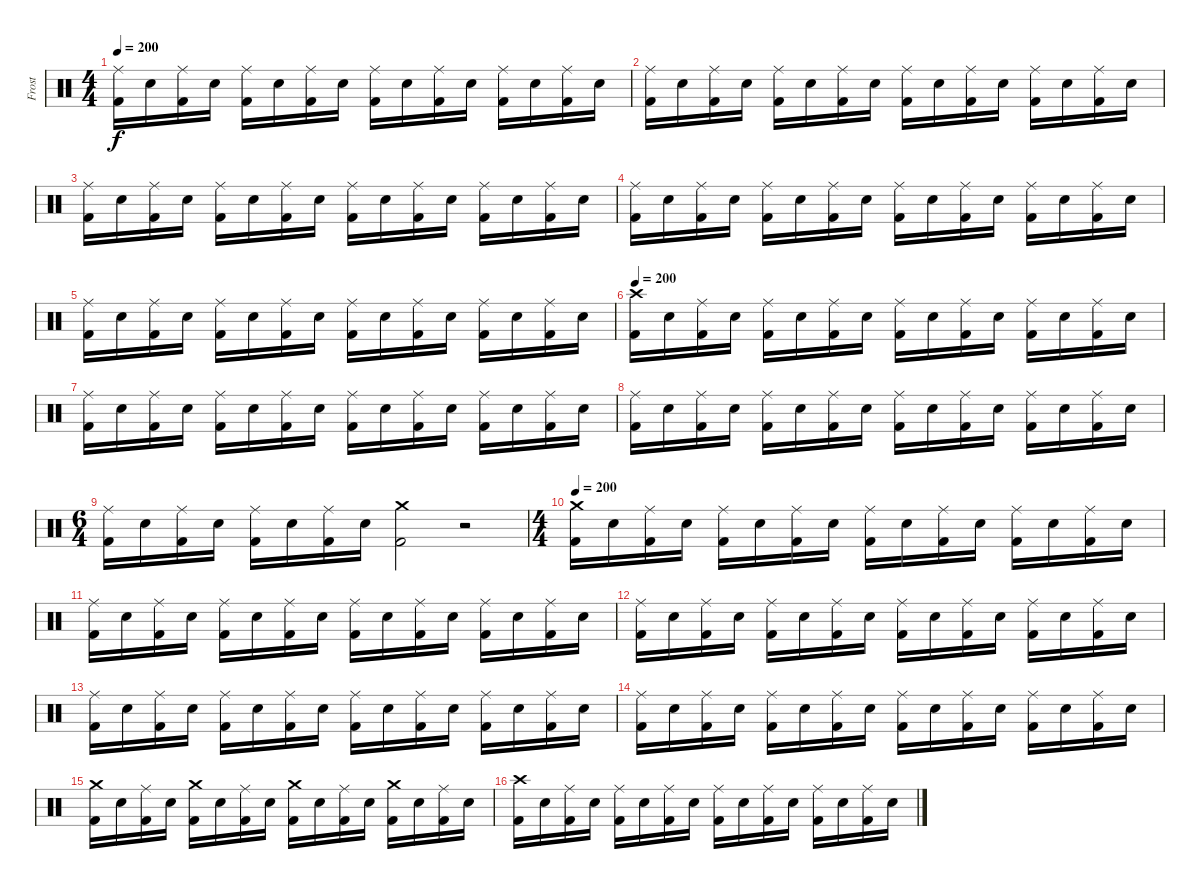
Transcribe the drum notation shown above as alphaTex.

\track ("Frost" "Frost") {instrument percussion}
\staff {score}
\articulation defaults
\ts (4 4)
\tempo 200
\clef neutral
\ks c
("Ride (middle)" "Kick (hit) 2").16{dy f} "Electric Snare (hit)".16 ("Ride (middle)" "Kick (hit) 2").16 "Electric Snare (hit)".16 ("Ride (middle)" "Kick (hit) 2").16 "Electric Snare (hit)".16 ("Ride (middle)" "Kick (hit) 2").16 "Electric Snare (hit)".16 ("Ride (middle)" "Kick (hit) 2").16 "Electric Snare (hit)".16 ("Ride (middle)" "Kick (hit) 2").16 "Electric Snare (hit)".16 ("Ride (middle)" "Kick (hit) 2").16 "Electric Snare (hit)".16 ("Ride (middle)" "Kick (hit) 2").16 "Electric Snare (hit)".16 |
("Ride (middle)" "Kick (hit) 2").16 "Electric Snare (hit)".16 ("Ride (middle)" "Kick (hit) 2").16 "Electric Snare (hit)".16 ("Ride (middle)" "Kick (hit) 2").16 "Electric Snare (hit)".16 ("Ride (middle)" "Kick (hit) 2").16 "Electric Snare (hit)".16 ("Ride (middle)" "Kick (hit) 2").16 "Electric Snare (hit)".16 ("Ride (middle)" "Kick (hit) 2").16 "Electric Snare (hit)".16 ("Ride (middle)" "Kick (hit) 2").16 "Electric Snare (hit)".16 ("Ride (middle)" "Kick (hit) 2").16 "Electric Snare (hit)".16 |
("Ride (middle)" "Kick (hit) 2").16 "Electric Snare (hit)".16 ("Ride (middle)" "Kick (hit) 2").16 "Electric Snare (hit)".16 ("Ride (middle)" "Kick (hit) 2").16 "Electric Snare (hit)".16 ("Ride (middle)" "Kick (hit) 2").16 "Electric Snare (hit)".16 ("Ride (middle)" "Kick (hit) 2").16 "Electric Snare (hit)".16 ("Ride (middle)" "Kick (hit) 2").16 "Electric Snare (hit)".16 ("Ride (middle)" "Kick (hit) 2").16 "Electric Snare (hit)".16 ("Ride (middle)" "Kick (hit) 2").16 "Electric Snare (hit)".16 |
("Ride (middle)" "Kick (hit) 2").16 "Electric Snare (hit)".16 ("Ride (middle)" "Kick (hit) 2").16 "Electric Snare (hit)".16 ("Ride (middle)" "Kick (hit) 2").16 "Electric Snare (hit)".16 ("Ride (middle)" "Kick (hit) 2").16 "Electric Snare (hit)".16 ("Ride (middle)" "Kick (hit) 2").16 "Electric Snare (hit)".16 ("Ride (middle)" "Kick (hit) 2").16 "Electric Snare (hit)".16 ("Ride (middle)" "Kick (hit) 2").16 "Electric Snare (hit)".16 ("Ride (middle)" "Kick (hit) 2").16 "Electric Snare (hit)".16 |
("Ride (middle)" "Kick (hit) 2").16 "Electric Snare (hit)".16 ("Ride (middle)" "Kick (hit) 2").16 "Electric Snare (hit)".16 ("Ride (middle)" "Kick (hit) 2").16 "Electric Snare (hit)".16 ("Ride (middle)" "Kick (hit) 2").16 "Electric Snare (hit)".16 ("Ride (middle)" "Kick (hit) 2").16 "Electric Snare (hit)".16 ("Ride (middle)" "Kick (hit) 2").16 "Electric Snare (hit)".16 ("Ride (middle)" "Kick (hit) 2").16 "Electric Snare (hit)".16 ("Ride (middle)" "Kick (hit) 2").16 "Electric Snare (hit)".16 |
\tempo 200
("Crash high (hit)" "Kick (hit) 2").16 "Electric Snare (hit)".16 ("Ride (middle)" "Kick (hit) 2").16 "Electric Snare (hit)".16 ("Ride (middle)" "Kick (hit) 2").16 "Electric Snare (hit)".16 ("Ride (middle)" "Kick (hit) 2").16 "Electric Snare (hit)".16 ("Ride (middle)" "Kick (hit) 2").16 "Electric Snare (hit)".16 ("Ride (middle)" "Kick (hit) 2").16 "Electric Snare (hit)".16 ("Ride (middle)" "Kick (hit) 2").16 "Electric Snare (hit)".16 ("Ride (middle)" "Kick (hit) 2").16 "Electric Snare (hit)".16 |
("Ride (middle)" "Kick (hit) 2").16 "Electric Snare (hit)".16 ("Ride (middle)" "Kick (hit) 2").16 "Electric Snare (hit)".16 ("Ride (middle)" "Kick (hit) 2").16 "Electric Snare (hit)".16 ("Ride (middle)" "Kick (hit) 2").16 "Electric Snare (hit)".16 ("Ride (middle)" "Kick (hit) 2").16 "Electric Snare (hit)".16 ("Ride (middle)" "Kick (hit) 2").16 "Electric Snare (hit)".16 ("Ride (middle)" "Kick (hit) 2").16 "Electric Snare (hit)".16 ("Ride (middle)" "Kick (hit) 2").16 "Electric Snare (hit)".16 |
("Ride (middle)" "Kick (hit) 2").16 "Electric Snare (hit)".16 ("Ride (middle)" "Kick (hit) 2").16 "Electric Snare (hit)".16 ("Ride (middle)" "Kick (hit) 2").16 "Electric Snare (hit)".16 ("Ride (middle)" "Kick (hit) 2").16 "Electric Snare (hit)".16 ("Ride (middle)" "Kick (hit) 2").16 "Electric Snare (hit)".16 ("Ride (middle)" "Kick (hit) 2").16 "Electric Snare (hit)".16 ("Ride (middle)" "Kick (hit) 2").16 "Electric Snare (hit)".16 ("Ride (middle)" "Kick (hit) 2").16 "Electric Snare (hit)".16 |
\ts (6 4)
("Ride (middle)" "Kick (hit) 2").16 "Electric Snare (hit)".16 ("Ride (middle)" "Kick (hit) 2").16 "Electric Snare (hit)".16 ("Ride (middle)" "Kick (hit) 2").16 "Electric Snare (hit)".16 ("Ride (middle)" "Kick (hit) 2").16 "Electric Snare (hit)".16 ("Crash medium (hit)" "Kick (hit) 2").2 r.2 |
\ts (4 4)
\tempo 200
("Crash medium (hit)" "Kick (hit) 2").16 "Electric Snare (hit)".16 ("Ride (middle)" "Kick (hit) 2").16 "Electric Snare (hit)".16 ("Ride (middle)" "Kick (hit) 2").16 "Electric Snare (hit)".16 ("Ride (middle)" "Kick (hit) 2").16 "Electric Snare (hit)".16 ("Ride (middle)" "Kick (hit) 2").16 "Electric Snare (hit)".16 ("Ride (middle)" "Kick (hit) 2").16 "Electric Snare (hit)".16 ("Ride (middle)" "Kick (hit) 2").16 "Electric Snare (hit)".16 ("Ride (middle)" "Kick (hit) 2").16 "Electric Snare (hit)".16 |
("Ride (middle)" "Kick (hit) 2").16 "Electric Snare (hit)".16 ("Ride (middle)" "Kick (hit) 2").16 "Electric Snare (hit)".16 ("Ride (middle)" "Kick (hit) 2").16 "Electric Snare (hit)".16 ("Ride (middle)" "Kick (hit) 2").16 "Electric Snare (hit)".16 ("Ride (middle)" "Kick (hit) 2").16 "Electric Snare (hit)".16 ("Ride (middle)" "Kick (hit) 2").16 "Electric Snare (hit)".16 ("Ride (middle)" "Kick (hit) 2").16 "Electric Snare (hit)".16 ("Ride (middle)" "Kick (hit) 2").16 "Electric Snare (hit)".16 |
("Ride (middle)" "Kick (hit) 2").16 "Electric Snare (hit)".16 ("Ride (middle)" "Kick (hit) 2").16 "Electric Snare (hit)".16 ("Ride (middle)" "Kick (hit) 2").16 "Electric Snare (hit)".16 ("Ride (middle)" "Kick (hit) 2").16 "Electric Snare (hit)".16 ("Ride (middle)" "Kick (hit) 2").16 "Electric Snare (hit)".16 ("Ride (middle)" "Kick (hit) 2").16 "Electric Snare (hit)".16 ("Ride (middle)" "Kick (hit) 2").16 "Electric Snare (hit)".16 ("Ride (middle)" "Kick (hit) 2").16 "Electric Snare (hit)".16 |
("Ride (middle)" "Kick (hit) 2").16 "Electric Snare (hit)".16 ("Ride (middle)" "Kick (hit) 2").16 "Electric Snare (hit)".16 ("Ride (middle)" "Kick (hit) 2").16 "Electric Snare (hit)".16 ("Ride (middle)" "Kick (hit) 2").16 "Electric Snare (hit)".16 ("Ride (middle)" "Kick (hit) 2").16 "Electric Snare (hit)".16 ("Ride (middle)" "Kick (hit) 2").16 "Electric Snare (hit)".16 ("Ride (middle)" "Kick (hit) 2").16 "Electric Snare (hit)".16 ("Ride (middle)" "Kick (hit) 2").16 "Electric Snare (hit)".16 |
("Ride (middle)" "Kick (hit) 2").16 "Electric Snare (hit)".16 ("Ride (middle)" "Kick (hit) 2").16 "Electric Snare (hit)".16 ("Ride (middle)" "Kick (hit) 2").16 "Electric Snare (hit)".16 ("Ride (middle)" "Kick (hit) 2").16 "Electric Snare (hit)".16 ("Ride (middle)" "Kick (hit) 2").16 "Electric Snare (hit)".16 ("Ride (middle)" "Kick (hit) 2").16 "Electric Snare (hit)".16 ("Ride (middle)" "Kick (hit) 2").16 "Electric Snare (hit)".16 ("Ride (middle)" "Kick (hit) 2").16 "Electric Snare (hit)".16 |
("Crash medium (hit)" "Kick (hit) 2").16 "Electric Snare (hit)".16 ("Ride (middle)" "Kick (hit) 2").16 "Electric Snare (hit)".16 ("Crash medium (hit)" "Kick (hit) 2").16 "Electric Snare (hit)".16 ("Ride (middle)" "Kick (hit) 2").16 "Electric Snare (hit)".16 ("Crash medium (hit)" "Kick (hit) 2").16 "Electric Snare (hit)".16 ("Ride (middle)" "Kick (hit) 2").16 "Electric Snare (hit)".16 ("Crash medium (hit)" "Kick (hit) 2").16 "Electric Snare (hit)".16 ("Ride (middle)" "Kick (hit) 2").16 "Electric Snare (hit)".16 |
("Crash high (hit)" "Kick (hit) 2").16 "Electric Snare (hit)".16 ("Ride (middle)" "Kick (hit) 2").16 "Electric Snare (hit)".16 ("Ride (middle)" "Kick (hit) 2").16 "Electric Snare (hit)".16 ("Ride (middle)" "Kick (hit) 2").16 "Electric Snare (hit)".16 ("Ride (middle)" "Kick (hit) 2").16 "Electric Snare (hit)".16 ("Ride (middle)" "Kick (hit) 2").16 "Electric Snare (hit)".16 ("Ride (middle)" "Kick (hit) 2").16 "Electric Snare (hit)".16 ("Ride (middle)" "Kick (hit) 2").16 "Electric Snare (hit)".16
